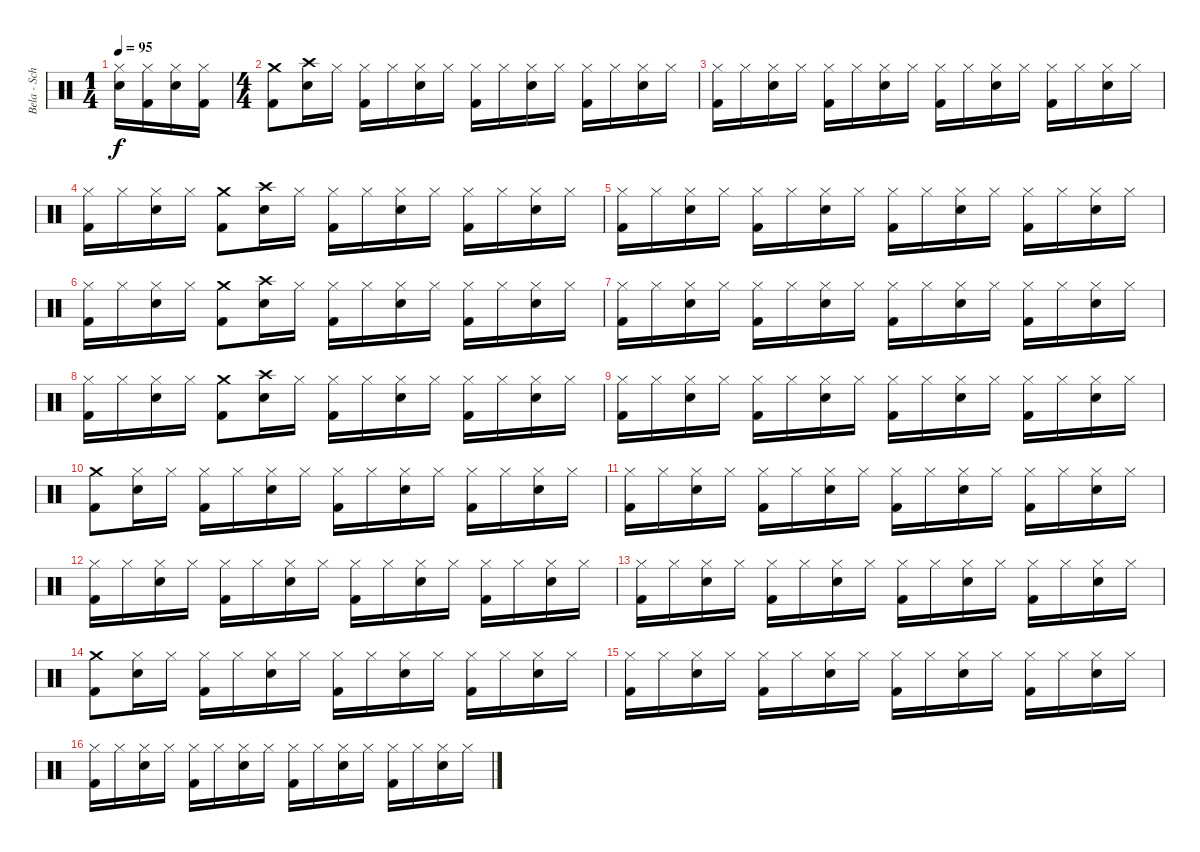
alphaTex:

\track ("Bela - Schlagzeug" "Bela - Sch") {instrument percussion}
\staff {score}
\articulation defaults
\ts (1 4)
\tempo 95
\clef neutral
\ks c
("Hi-Hat (closed)" "Snare (hit) 2").16{dy f} ("Hi-Hat (closed)" "Kick (hit) 2").16 ("Hi-Hat (closed)" "Snare (hit) 2").16 ("Hi-Hat (closed)" "Kick (hit) 2").16 |
\ts (4 4)
("Crash medium (hit)" "Kick (hit) 2").8 ("Crash high (hit)" "Snare (hit) 2").16 "Hi-Hat (closed)".16 ("Hi-Hat (closed)" "Kick (hit) 2").16 "Hi-Hat (closed)".16 ("Hi-Hat (closed)" "Snare (hit) 2").16 "Hi-Hat (closed)".16 ("Hi-Hat (closed)" "Kick (hit) 2").16 "Hi-Hat (closed)".16 ("Hi-Hat (closed)" "Snare (hit) 2").16 "Hi-Hat (closed)".16 ("Hi-Hat (closed)" "Kick (hit) 2").16 "Hi-Hat (closed)".16 ("Hi-Hat (closed)" "Snare (hit) 2").16 "Hi-Hat (closed)".16 |
("Hi-Hat (closed)" "Kick (hit) 2").16 "Hi-Hat (closed)".16 ("Hi-Hat (closed)" "Snare (hit) 2").16 "Hi-Hat (closed)".16 ("Hi-Hat (closed)" "Kick (hit) 2").16 "Hi-Hat (closed)".16 ("Hi-Hat (closed)" "Snare (hit) 2").16 "Hi-Hat (closed)".16 ("Hi-Hat (closed)" "Kick (hit) 2").16 "Hi-Hat (closed)".16 ("Hi-Hat (closed)" "Snare (hit) 2").16 "Hi-Hat (closed)".16 ("Hi-Hat (closed)" "Kick (hit) 2").16 "Hi-Hat (closed)".16 ("Hi-Hat (closed)" "Snare (hit) 2").16 "Hi-Hat (closed)".16 |
("Hi-Hat (closed)" "Kick (hit) 2").16 "Hi-Hat (closed)".16 ("Hi-Hat (closed)" "Snare (hit) 2").16 "Hi-Hat (closed)".16 ("Crash medium (hit)" "Kick (hit) 2").8 ("Crash high (hit)" "Snare (hit) 2").16 "Hi-Hat (closed)".16 ("Hi-Hat (closed)" "Kick (hit) 2").16 "Hi-Hat (closed)".16 ("Hi-Hat (closed)" "Snare (hit) 2").16 "Hi-Hat (closed)".16 ("Hi-Hat (closed)" "Kick (hit) 2").16 "Hi-Hat (closed)".16 ("Hi-Hat (closed)" "Snare (hit) 2").16 "Hi-Hat (closed)".16 |
("Hi-Hat (closed)" "Kick (hit) 2").16 "Hi-Hat (closed)".16 ("Hi-Hat (closed)" "Snare (hit) 2").16 "Hi-Hat (closed)".16 ("Hi-Hat (closed)" "Kick (hit) 2").16 "Hi-Hat (closed)".16 ("Hi-Hat (closed)" "Snare (hit) 2").16 "Hi-Hat (closed)".16 ("Hi-Hat (closed)" "Kick (hit) 2").16 "Hi-Hat (closed)".16 ("Hi-Hat (closed)" "Snare (hit) 2").16 "Hi-Hat (closed)".16 ("Hi-Hat (closed)" "Kick (hit) 2").16 "Hi-Hat (closed)".16 ("Hi-Hat (closed)" "Snare (hit) 2").16 "Hi-Hat (closed)".16 |
("Hi-Hat (closed)" "Kick (hit) 2").16 "Hi-Hat (closed)".16 ("Hi-Hat (closed)" "Snare (hit) 2").16 "Hi-Hat (closed)".16 ("Crash medium (hit)" "Kick (hit) 2").8 ("Crash high (hit)" "Snare (hit) 2").16 "Hi-Hat (closed)".16 ("Hi-Hat (closed)" "Kick (hit) 2").16 "Hi-Hat (closed)".16 ("Hi-Hat (closed)" "Snare (hit) 2").16 "Hi-Hat (closed)".16 ("Hi-Hat (closed)" "Kick (hit) 2").16 "Hi-Hat (closed)".16 ("Hi-Hat (closed)" "Snare (hit) 2").16 "Hi-Hat (closed)".16 |
("Hi-Hat (closed)" "Kick (hit) 2").16 "Hi-Hat (closed)".16 ("Hi-Hat (closed)" "Snare (hit) 2").16 "Hi-Hat (closed)".16 ("Hi-Hat (closed)" "Kick (hit) 2").16 "Hi-Hat (closed)".16 ("Hi-Hat (closed)" "Snare (hit) 2").16 "Hi-Hat (closed)".16 ("Hi-Hat (closed)" "Kick (hit) 2").16 "Hi-Hat (closed)".16 ("Hi-Hat (closed)" "Snare (hit) 2").16 "Hi-Hat (closed)".16 ("Hi-Hat (closed)" "Kick (hit) 2").16 "Hi-Hat (closed)".16 ("Hi-Hat (closed)" "Snare (hit) 2").16 "Hi-Hat (closed)".16 |
("Hi-Hat (closed)" "Kick (hit) 2").16 "Hi-Hat (closed)".16 ("Hi-Hat (closed)" "Snare (hit) 2").16 "Hi-Hat (closed)".16 ("Crash medium (hit)" "Kick (hit) 2").8 ("Crash high (hit)" "Snare (hit) 2").16 "Hi-Hat (closed)".16 ("Hi-Hat (closed)" "Kick (hit) 2").16 "Hi-Hat (closed)".16 ("Hi-Hat (closed)" "Snare (hit) 2").16 "Hi-Hat (closed)".16 ("Hi-Hat (closed)" "Kick (hit) 2").16 "Hi-Hat (closed)".16 ("Hi-Hat (closed)" "Snare (hit) 2").16 "Hi-Hat (closed)".16 |
("Hi-Hat (closed)" "Kick (hit) 2").16 "Hi-Hat (closed)".16 ("Hi-Hat (closed)" "Snare (hit) 2").16 "Hi-Hat (closed)".16 ("Hi-Hat (closed)" "Kick (hit) 2").16 "Hi-Hat (closed)".16 ("Hi-Hat (closed)" "Snare (hit) 2").16 "Hi-Hat (closed)".16 ("Hi-Hat (closed)" "Kick (hit) 2").16 "Hi-Hat (closed)".16 ("Hi-Hat (closed)" "Snare (hit) 2").16 "Hi-Hat (closed)".16 ("Hi-Hat (closed)" "Kick (hit) 2").16 "Hi-Hat (closed)".16 ("Hi-Hat (closed)" "Snare (hit) 2").16 "Hi-Hat (closed)".16 |
("Crash medium (hit)" "Kick (hit) 2").8 ("Hi-Hat (closed)" "Snare (hit) 2").16 "Hi-Hat (closed)".16 ("Hi-Hat (closed)" "Kick (hit) 2").16 "Hi-Hat (closed)".16 ("Hi-Hat (closed)" "Snare (hit) 2").16 "Hi-Hat (closed)".16 ("Hi-Hat (closed)" "Kick (hit) 2").16 "Hi-Hat (closed)".16 ("Hi-Hat (closed)" "Snare (hit) 2").16 "Hi-Hat (closed)".16 ("Hi-Hat (closed)" "Kick (hit) 2").16 "Hi-Hat (closed)".16 ("Hi-Hat (closed)" "Snare (hit) 2").16 "Hi-Hat (closed)".16 |
("Hi-Hat (closed)" "Kick (hit) 2").16 "Hi-Hat (closed)".16 ("Hi-Hat (closed)" "Snare (hit) 2").16 "Hi-Hat (closed)".16 ("Hi-Hat (closed)" "Kick (hit) 2").16 "Hi-Hat (closed)".16 ("Hi-Hat (closed)" "Snare (hit) 2").16 "Hi-Hat (closed)".16 ("Hi-Hat (closed)" "Kick (hit) 2").16 "Hi-Hat (closed)".16 ("Hi-Hat (closed)" "Snare (hit) 2").16 "Hi-Hat (closed)".16 ("Hi-Hat (closed)" "Kick (hit) 2").16 "Hi-Hat (closed)".16 ("Hi-Hat (closed)" "Snare (hit) 2").16 "Hi-Hat (closed)".16 |
("Hi-Hat (closed)" "Kick (hit) 2").16 "Hi-Hat (closed)".16 ("Hi-Hat (closed)" "Snare (hit) 2").16 "Hi-Hat (closed)".16 ("Hi-Hat (closed)" "Kick (hit) 2").16 "Hi-Hat (closed)".16 ("Hi-Hat (closed)" "Snare (hit) 2").16 "Hi-Hat (closed)".16 ("Hi-Hat (closed)" "Kick (hit) 2").16 "Hi-Hat (closed)".16 ("Hi-Hat (closed)" "Snare (hit) 2").16 "Hi-Hat (closed)".16 ("Hi-Hat (closed)" "Kick (hit) 2").16 "Hi-Hat (closed)".16 ("Hi-Hat (closed)" "Snare (hit) 2").16 "Hi-Hat (closed)".16 |
("Hi-Hat (closed)" "Kick (hit) 2").16 "Hi-Hat (closed)".16 ("Hi-Hat (closed)" "Snare (hit) 2").16 "Hi-Hat (closed)".16 ("Hi-Hat (closed)" "Kick (hit) 2").16 "Hi-Hat (closed)".16 ("Hi-Hat (closed)" "Snare (hit) 2").16 "Hi-Hat (closed)".16 ("Hi-Hat (closed)" "Kick (hit) 2").16 "Hi-Hat (closed)".16 ("Hi-Hat (closed)" "Snare (hit) 2").16 "Hi-Hat (closed)".16 ("Hi-Hat (closed)" "Kick (hit) 2").16 "Hi-Hat (closed)".16 ("Hi-Hat (closed)" "Snare (hit) 2").16 "Hi-Hat (closed)".16 |
("Crash medium (hit)" "Kick (hit) 2").8 ("Hi-Hat (closed)" "Snare (hit) 2").16 "Hi-Hat (closed)".16 ("Hi-Hat (closed)" "Kick (hit) 2").16 "Hi-Hat (closed)".16 ("Hi-Hat (closed)" "Snare (hit) 2").16 "Hi-Hat (closed)".16 ("Hi-Hat (closed)" "Kick (hit) 2").16 "Hi-Hat (closed)".16 ("Hi-Hat (closed)" "Snare (hit) 2").16 "Hi-Hat (closed)".16 ("Hi-Hat (closed)" "Kick (hit) 2").16 "Hi-Hat (closed)".16 ("Hi-Hat (closed)" "Snare (hit) 2").16 "Hi-Hat (closed)".16 |
("Hi-Hat (closed)" "Kick (hit) 2").16 "Hi-Hat (closed)".16 ("Hi-Hat (closed)" "Snare (hit) 2").16 "Hi-Hat (closed)".16 ("Hi-Hat (closed)" "Kick (hit) 2").16 "Hi-Hat (closed)".16 ("Hi-Hat (closed)" "Snare (hit) 2").16 "Hi-Hat (closed)".16 ("Hi-Hat (closed)" "Kick (hit) 2").16 "Hi-Hat (closed)".16 ("Hi-Hat (closed)" "Snare (hit) 2").16 "Hi-Hat (closed)".16 ("Hi-Hat (closed)" "Kick (hit) 2").16 "Hi-Hat (closed)".16 ("Hi-Hat (closed)" "Snare (hit) 2").16 "Hi-Hat (closed)".16 |
("Hi-Hat (closed)" "Kick (hit) 2").16 "Hi-Hat (closed)".16 ("Hi-Hat (closed)" "Snare (hit) 2").16 "Hi-Hat (closed)".16 ("Hi-Hat (closed)" "Kick (hit) 2").16 "Hi-Hat (closed)".16 ("Hi-Hat (closed)" "Snare (hit) 2").16 "Hi-Hat (closed)".16 ("Hi-Hat (closed)" "Kick (hit) 2").16 "Hi-Hat (closed)".16 ("Hi-Hat (closed)" "Snare (hit) 2").16 "Hi-Hat (closed)".16 ("Hi-Hat (closed)" "Kick (hit) 2").16 "Hi-Hat (closed)".16 ("Hi-Hat (closed)" "Snare (hit) 2").16 "Hi-Hat (closed)".16
